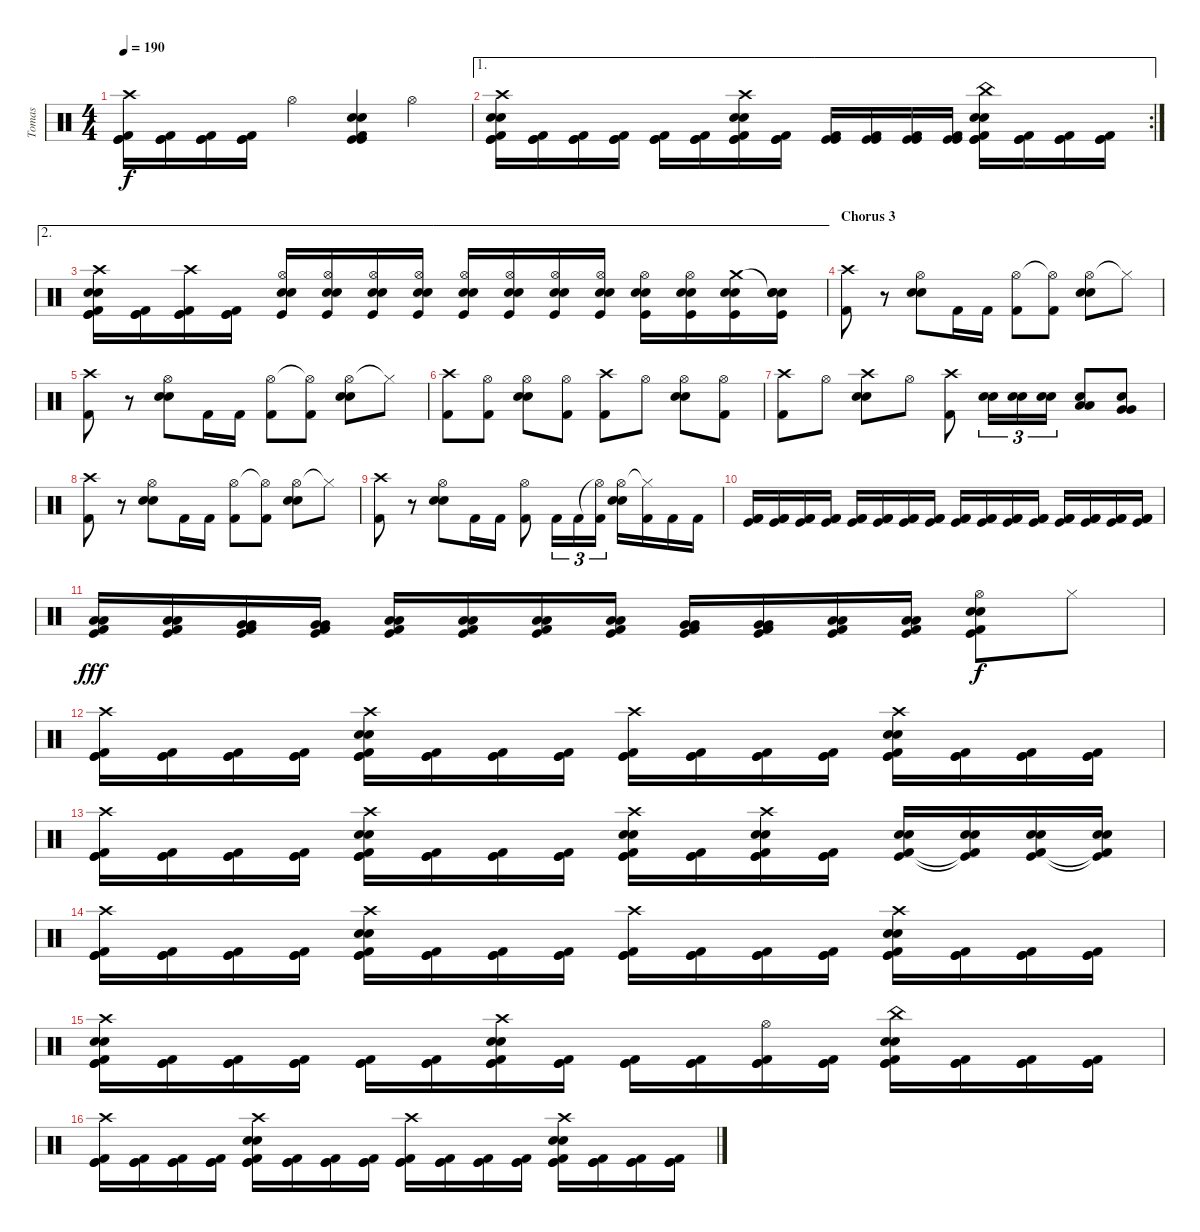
\track ("Tomas" "Tomas") {instrument percussion}
\staff {score}
\articulation defaults
\ts (4 4)
\tempo 190
\clef neutral
\ks c
("Crash high (hit)" "Kick (hit)" "Kick (hit)" "Kick (hit) 2").16{dy f} ("Kick (hit)" "Kick (hit)" "Kick (hit) 2").16 ("Kick (hit)" "Kick (hit)" "Kick (hit) 2").16 ("Kick (hit)" "Kick (hit)" "Kick (hit) 2").16 "Hi-Hat (open)".4 ("Kick (hit)" "Kick (hit)" "Kick (hit) 2" "Electric Snare (hit)" "Electric Snare (hit)").4 "Hi-Hat (open)".4 |
\ae 1
\rc 2
("Crash high (hit)" "Kick (hit)" "Electric Snare (hit)" "Electric Snare (hit)" "Kick (hit)" "Kick (hit) 2").16 ("Kick (hit)" "Kick (hit)" "Kick (hit) 2").16 ("Kick (hit)" "Kick (hit)" "Kick (hit) 2").16 ("Kick (hit)" "Kick (hit)" "Kick (hit) 2").16 ("Kick (hit)" "Kick (hit)" "Kick (hit) 2").16 ("Kick (hit)" "Kick (hit)" "Kick (hit) 2").16 ("Crash high (hit)" "Kick (hit)" "Electric Snare (hit)" "Electric Snare (hit)" "Kick (hit)" "Kick (hit) 2").16 ("Kick (hit)" "Kick (hit)" "Kick (hit) 2").16 ("Kick (hit)" "Kick (hit)" "Kick (hit) 2").16 ("Kick (hit)" "Kick (hit)" "Kick (hit) 2").16 ("Kick (hit)" "Kick (hit)" "Kick (hit) 2").16 ("Kick (hit)" "Kick (hit)" "Kick (hit) 2").16 ("China (hit)" "Kick (hit)" "Electric Snare (hit)" "Electric Snare (hit)" "Kick (hit)" "Kick (hit) 2").16 ("Kick (hit)" "Kick (hit)" "Kick (hit) 2").16 ("Kick (hit)" "Kick (hit)" "Kick (hit) 2").16 ("Kick (hit)" "Kick (hit)" "Kick (hit) 2").16 |
\ae 2
("Crash high (hit)" "Kick (hit)" "Electric Snare (hit)" "Electric Snare (hit)" "Kick (hit)" "Kick (hit) 2").16 ("Kick (hit)" "Kick (hit)" "Kick (hit) 2").16 ("Crash high (hit)" "Kick (hit)" "Kick (hit)" "Kick (hit) 2").16 ("Kick (hit)" "Kick (hit)" "Kick (hit) 2").16 ("Hi-Hat (open)" "Kick (hit)" "Electric Snare (hit)" "Electric Snare (hit)").16 ("Hi-Hat (open)" "Kick (hit)" "Electric Snare (hit)" "Electric Snare (hit)").16 ("Hi-Hat (open)" "Kick (hit)" "Electric Snare (hit)" "Electric Snare (hit)").16 ("Hi-Hat (open)" "Kick (hit)" "Electric Snare (hit)" "Electric Snare (hit)").16 ("Hi-Hat (open)" "Kick (hit)" "Electric Snare (hit)" "Electric Snare (hit)").16 ("Hi-Hat (open)" "Kick (hit)" "Electric Snare (hit)" "Electric Snare (hit)").16 ("Hi-Hat (open)" "Kick (hit)" "Electric Snare (hit)" "Electric Snare (hit)").16 ("Hi-Hat (open)" "Kick (hit)" "Electric Snare (hit)" "Electric Snare (hit)").16 ("Hi-Hat (open)" "Kick (hit)" "Electric Snare (hit)" "Electric Snare (hit)").16 ("Hi-Hat (open)" "Kick (hit)" "Electric Snare (hit)" "Electric Snare (hit)").16 ("Crash medium (hit)" "Kick (hit)" "Electric Snare (hit)" "Electric Snare (hit)").16 ("Snare (hit)"{t} "Kick (hit)" "Electric Snare (hit)" "Electric Snare (hit)").16 |
\section ("" "Chorus 3")
("Crash high (hit)" "Kick (hit) 2").8 r.8 ("Hi-Hat (open)" "Electric Snare (hit)" "Electric Snare (hit)").8 "Kick (hit) 2".16 "Kick (hit) 2".16 ("Hi-Hat (open)" "Kick (hit) 2").8 ("Hi-Hat (open)"{t} "Kick (hit) 2").8 ("Hi-Hat (open)" "Electric Snare (hit)" "Electric Snare (hit)").8 "Hi-Hat (closed)"{t}.8 |
("Crash high (hit)" "Kick (hit) 2").8 r.8 ("Hi-Hat (open)" "Electric Snare (hit)" "Electric Snare (hit)").8 "Kick (hit) 2".16 "Kick (hit) 2".16 ("Hi-Hat (open)" "Kick (hit) 2").8 ("Hi-Hat (open)"{t} "Kick (hit) 2").8 ("Hi-Hat (open)" "Electric Snare (hit)" "Electric Snare (hit)").8 "Hi-Hat (closed)"{t}.8 |
("Crash high (hit)" "Kick (hit) 2").8 ("Hi-Hat (open)" "Kick (hit) 2").8 ("Hi-Hat (open)" "Electric Snare (hit)" "Electric Snare (hit)").8 ("Hi-Hat (open)" "Kick (hit) 2").8 ("Crash high (hit)" "Kick (hit) 2").8 "Hi-Hat (open)".8 ("Hi-Hat (open)" "Electric Snare (hit)" "Electric Snare (hit)").8 ("Hi-Hat (open)" "Kick (hit) 2").8 |
("Crash high (hit)" "Kick (hit) 2").8 "Hi-Hat (open)".8 ("Crash high (hit)" "Electric Snare (hit)" "Electric Snare (hit)").8 "Hi-Hat (open)".8 ("Crash high (hit)" "Kick (hit) 2").8 ("Electric Snare (hit)" "Electric Snare (hit)").16{tu (3 2)} ("Electric Snare (hit)" "Electric Snare (hit)").16{tu (3 2)} ("Electric Snare (hit)" "Electric Snare (hit)").16{tu (3 2)} ("Low Tom (hit)" "Low Tom (hit)" "Electric Snare (hit)").8 ("Very Low Tom (hit)" "Very Low Tom (hit)" "Electric Snare (hit)").8 |
("Crash high (hit)" "Kick (hit) 2").8 r.8 ("Hi-Hat (open)" "Electric Snare (hit)" "Electric Snare (hit)").8 "Kick (hit) 2".16 "Kick (hit) 2".16 ("Hi-Hat (open)" "Kick (hit) 2").8 ("Hi-Hat (open)"{t} "Kick (hit) 2").8 ("Hi-Hat (open)" "Electric Snare (hit)" "Electric Snare (hit)").8 "Hi-Hat (closed)"{t}.8 |
("Crash high (hit)" "Kick (hit) 2").8 r.8 ("Hi-Hat (open)" "Electric Snare (hit)" "Electric Snare (hit)").8 "Kick (hit) 2".16 "Kick (hit) 2".16 ("Hi-Hat (open)" "Kick (hit) 2").8 "Kick (hit) 2".16{tu (3 2)} "Kick (hit) 2".16{tu (3 2)} ("Hi-Hat (open)"{t} "Kick (hit) 2").16{tu (3 2)} ("Hi-Hat (open)" "Electric Snare (hit)" "Electric Snare (hit)").16 ("Hi-Hat (closed)"{t} "Kick (hit) 2").16 "Kick (hit) 2".16 "Kick (hit) 2".16 |
("Kick (hit)" "Kick (hit) 2" "Kick (hit) 2").16 ("Kick (hit)" "Kick (hit) 2" "Kick (hit) 2").16 ("Kick (hit)" "Kick (hit) 2" "Kick (hit) 2").16 ("Kick (hit)" "Kick (hit) 2" "Kick (hit) 2").16 ("Kick (hit)" "Kick (hit) 2" "Kick (hit) 2").16 ("Kick (hit)" "Kick (hit) 2" "Kick (hit) 2").16 ("Kick (hit)" "Kick (hit) 2" "Kick (hit) 2").16 ("Kick (hit)" "Kick (hit) 2" "Kick (hit) 2").16 ("Kick (hit)" "Kick (hit) 2" "Kick (hit) 2").16 ("Kick (hit)" "Kick (hit) 2" "Kick (hit) 2").16 ("Kick (hit)" "Kick (hit) 2" "Kick (hit) 2").16 ("Kick (hit)" "Kick (hit) 2" "Kick (hit) 2").16 ("Kick (hit)" "Kick (hit) 2" "Kick (hit) 2").16 ("Kick (hit)" "Kick (hit) 2" "Kick (hit) 2").16 ("Kick (hit)" "Kick (hit) 2" "Kick (hit) 2").16 ("Kick (hit)" "Kick (hit) 2" "Kick (hit) 2").16 |
("Kick (hit) 2" "Kick (hit)" "Low Tom (hit)" "Low Tom (hit)").16{dy fff} ("Kick (hit) 2" "Kick (hit)" "Low Tom (hit)" "Low Tom (hit)").16 ("Kick (hit) 2" "Kick (hit)" "Very Low Tom (hit)" "Very Low Tom (hit)").16 ("Kick (hit) 2" "Kick (hit)" "Very Low Tom (hit)" "Very Low Tom (hit)").16 ("Kick (hit) 2" "Kick (hit)" "Low Floor Tom (hit)" "Low Floor Tom (hit)").16 ("Kick (hit) 2" "Kick (hit)" "Low Floor Tom (hit)" "Low Floor Tom (hit)").16 ("Kick (hit) 2" "Kick (hit)" "Low Tom (hit)" "Low Tom (hit)").16 ("Kick (hit) 2" "Kick (hit)" "Low Tom (hit)" "Low Tom (hit)").16 ("Kick (hit) 2" "Kick (hit)" "Very Low Tom (hit)" "Very Low Tom (hit)").16 ("Kick (hit) 2" "Kick (hit)" "Very Low Tom (hit)" "Very Low Tom (hit)").16 ("Kick (hit) 2" "Kick (hit)" "Low Floor Tom (hit)" "Low Floor Tom (hit)").16 ("Kick (hit) 2" "Kick (hit)" "Low Floor Tom (hit)" "Low Floor Tom (hit)").16 ("Kick (hit)" "Hi-Hat (open)" "Electric Snare (hit)" "Electric Snare (hit)" "Kick (hit) 2").8{dy f} "Hi-Hat (closed)".8 |
("Crash high (hit)" "Kick (hit)" "Kick (hit)" "Kick (hit) 2").16 ("Kick (hit)" "Kick (hit)" "Kick (hit) 2").16 ("Kick (hit)" "Kick (hit)" "Kick (hit) 2").16 ("Kick (hit)" "Kick (hit)" "Kick (hit) 2").16 ("Crash high (hit)" "Kick (hit)" "Electric Snare (hit)" "Electric Snare (hit)" "Kick (hit)" "Kick (hit) 2").16 ("Kick (hit)" "Kick (hit)" "Kick (hit) 2").16 ("Kick (hit)" "Kick (hit)" "Kick (hit) 2").16 ("Kick (hit)" "Kick (hit)" "Kick (hit) 2").16 ("Crash high (hit)" "Kick (hit)" "Kick (hit)" "Kick (hit) 2").16 ("Kick (hit)" "Kick (hit)" "Kick (hit) 2").16 ("Kick (hit)" "Kick (hit)" "Kick (hit) 2").16 ("Kick (hit)" "Kick (hit)" "Kick (hit) 2").16 ("Crash high (hit)" "Kick (hit)" "Electric Snare (hit)" "Electric Snare (hit)" "Kick (hit)" "Kick (hit) 2").16 ("Kick (hit)" "Kick (hit)" "Kick (hit) 2").16 ("Kick (hit)" "Kick (hit)" "Kick (hit) 2").16 ("Kick (hit)" "Kick (hit)" "Kick (hit) 2").16 |
("Crash high (hit)" "Kick (hit)" "Kick (hit)" "Kick (hit) 2").16 ("Kick (hit)" "Kick (hit)" "Kick (hit) 2").16 ("Kick (hit)" "Kick (hit)" "Kick (hit) 2").16 ("Kick (hit)" "Kick (hit)" "Kick (hit) 2").16 ("Crash high (hit)" "Kick (hit)" "Electric Snare (hit)" "Electric Snare (hit)" "Kick (hit)" "Kick (hit) 2").16 ("Kick (hit)" "Kick (hit)" "Kick (hit) 2").16 ("Kick (hit)" "Kick (hit)" "Kick (hit) 2").16 ("Kick (hit)" "Kick (hit)" "Kick (hit) 2").16 ("Crash high (hit)" "Kick (hit)" "Electric Snare (hit)" "Electric Snare (hit)" "Kick (hit)" "Kick (hit) 2").16 ("Kick (hit)" "Kick (hit)" "Kick (hit) 2").16 ("Crash high (hit)" "Kick (hit)" "Electric Snare (hit)" "Electric Snare (hit)" "Kick (hit)" "Kick (hit) 2").16 ("Kick (hit)" "Kick (hit)" "Kick (hit) 2").16 ("Kick (hit)" "Electric Snare (hit)" "Electric Snare (hit)" "Kick (hit) 2").16 ("Kick (hit)"{t} "Electric Snare (hit)" "Electric Snare (hit)" "Kick (hit) 2"{t}).16 ("Kick (hit)" "Electric Snare (hit)" "Electric Snare (hit)" "Kick (hit) 2").16 ("Kick (hit)"{t} "Electric Snare (hit)" "Electric Snare (hit)" "Kick (hit) 2"{t}).16 |
("Crash high (hit)" "Kick (hit)" "Kick (hit)" "Kick (hit) 2").16 ("Kick (hit)" "Kick (hit)" "Kick (hit) 2").16 ("Kick (hit)" "Kick (hit)" "Kick (hit) 2").16 ("Kick (hit)" "Kick (hit)" "Kick (hit) 2").16 ("Crash high (hit)" "Kick (hit)" "Electric Snare (hit)" "Electric Snare (hit)" "Kick (hit)" "Kick (hit) 2").16 ("Kick (hit)" "Kick (hit)" "Kick (hit) 2").16 ("Kick (hit)" "Kick (hit)" "Kick (hit) 2").16 ("Kick (hit)" "Kick (hit)" "Kick (hit) 2").16 ("Crash high (hit)" "Kick (hit)" "Kick (hit)" "Kick (hit) 2").16 ("Kick (hit)" "Kick (hit)" "Kick (hit) 2").16 ("Kick (hit)" "Kick (hit)" "Kick (hit) 2").16 ("Kick (hit)" "Kick (hit)" "Kick (hit) 2").16 ("Crash high (hit)" "Kick (hit)" "Electric Snare (hit)" "Electric Snare (hit)" "Kick (hit)" "Kick (hit) 2").16 ("Kick (hit)" "Kick (hit)" "Kick (hit) 2").16 ("Kick (hit)" "Kick (hit)" "Kick (hit) 2").16 ("Kick (hit)" "Kick (hit)" "Kick (hit) 2").16 |
("Crash high (hit)" "Kick (hit)" "Electric Snare (hit)" "Electric Snare (hit)" "Kick (hit)" "Kick (hit) 2").16 ("Kick (hit)" "Kick (hit)" "Kick (hit) 2").16 ("Kick (hit)" "Kick (hit)" "Kick (hit) 2").16 ("Kick (hit)" "Kick (hit)" "Kick (hit) 2").16 ("Kick (hit)" "Kick (hit)" "Kick (hit) 2").16 ("Kick (hit)" "Kick (hit)" "Kick (hit) 2").16 ("Crash high (hit)" "Kick (hit)" "Electric Snare (hit)" "Electric Snare (hit)" "Kick (hit)" "Kick (hit) 2").16 ("Kick (hit)" "Kick (hit)" "Kick (hit) 2").16 ("Kick (hit)" "Kick (hit)" "Kick (hit) 2").16 ("Kick (hit)" "Kick (hit)" "Kick (hit) 2").16 ("Hi-Hat (open)" "Kick (hit)" "Kick (hit)" "Kick (hit) 2").16 ("Kick (hit)" "Kick (hit)" "Kick (hit) 2").16 ("China (hit)" "Kick (hit)" "Electric Snare (hit)" "Electric Snare (hit)" "Kick (hit)" "Kick (hit) 2").16 ("Kick (hit)" "Kick (hit)" "Kick (hit) 2").16 ("Kick (hit)" "Kick (hit)" "Kick (hit) 2").16 ("Kick (hit)" "Kick (hit)" "Kick (hit) 2").16 |
("Crash high (hit)" "Kick (hit)" "Kick (hit)" "Kick (hit) 2").16 ("Kick (hit)" "Kick (hit)" "Kick (hit) 2").16 ("Kick (hit)" "Kick (hit)" "Kick (hit) 2").16 ("Kick (hit)" "Kick (hit)" "Kick (hit) 2").16 ("Crash high (hit)" "Kick (hit)" "Electric Snare (hit)" "Electric Snare (hit)" "Kick (hit)" "Kick (hit) 2").16 ("Kick (hit)" "Kick (hit)" "Kick (hit) 2").16 ("Kick (hit)" "Kick (hit)" "Kick (hit) 2").16 ("Kick (hit)" "Kick (hit)" "Kick (hit) 2").16 ("Crash high (hit)" "Kick (hit)" "Kick (hit)" "Kick (hit) 2").16 ("Kick (hit)" "Kick (hit)" "Kick (hit) 2").16 ("Kick (hit)" "Kick (hit)" "Kick (hit) 2").16 ("Kick (hit)" "Kick (hit)" "Kick (hit) 2").16 ("Crash high (hit)" "Kick (hit)" "Electric Snare (hit)" "Electric Snare (hit)" "Kick (hit)" "Kick (hit) 2").16 ("Kick (hit)" "Kick (hit)" "Kick (hit) 2").16 ("Kick (hit)" "Kick (hit)" "Kick (hit) 2").16 ("Kick (hit)" "Kick (hit)" "Kick (hit) 2").16
